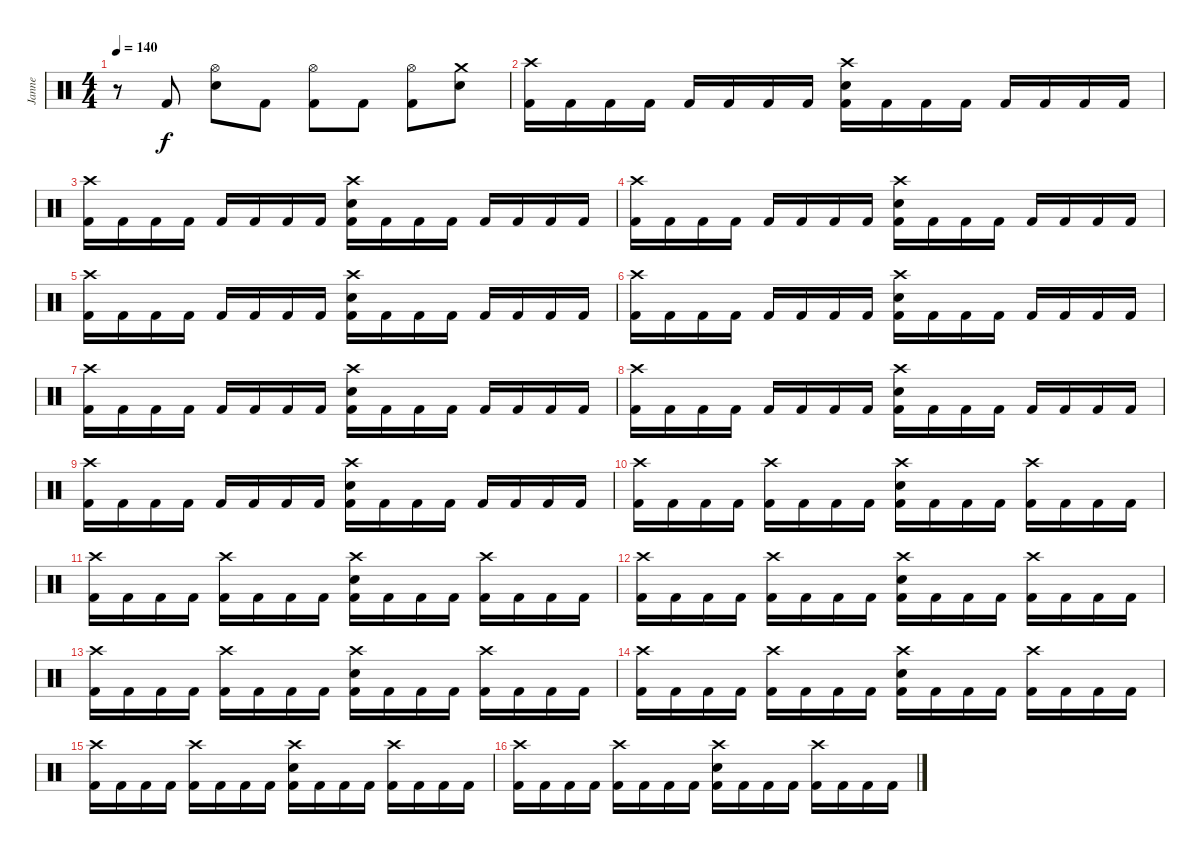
\track ("Janne" "Janne") {instrument percussion}
\staff {score}
\articulation defaults
\ts (4 4)
\tempo 140
\clef neutral
\ks c
r.8{dy f} "Kick (hit) 2".8 ("Hi-Hat (open)" "Electric Snare (hit)").8 "Kick (hit) 2".8 ("Hi-Hat (open)" "Kick (hit) 2").8 "Kick (hit) 2".8 ("Hi-Hat (open)" "Kick (hit) 2").8 ("Crash medium (hit)" "Electric Snare (hit)").8 |
("Crash high (hit)" "Kick (hit) 2").16 "Kick (hit) 2".16 "Kick (hit) 2".16 "Kick (hit) 2".16 "Kick (hit) 2".16 "Kick (hit) 2".16 "Kick (hit) 2".16 "Kick (hit) 2".16 ("Crash high (hit)" "Electric Snare (hit)" "Kick (hit) 2").16 "Kick (hit) 2".16 "Kick (hit) 2".16 "Kick (hit) 2".16 "Kick (hit) 2".16 "Kick (hit) 2".16 "Kick (hit) 2".16 "Kick (hit) 2".16 |
("Crash high (hit)" "Kick (hit) 2").16 "Kick (hit) 2".16 "Kick (hit) 2".16 "Kick (hit) 2".16 "Kick (hit) 2".16 "Kick (hit) 2".16 "Kick (hit) 2".16 "Kick (hit) 2".16 ("Crash high (hit)" "Electric Snare (hit)" "Kick (hit) 2").16 "Kick (hit) 2".16 "Kick (hit) 2".16 "Kick (hit) 2".16 "Kick (hit) 2".16 "Kick (hit) 2".16 "Kick (hit) 2".16 "Kick (hit) 2".16 |
("Crash high (hit)" "Kick (hit) 2").16 "Kick (hit) 2".16 "Kick (hit) 2".16 "Kick (hit) 2".16 "Kick (hit) 2".16 "Kick (hit) 2".16 "Kick (hit) 2".16 "Kick (hit) 2".16 ("Crash high (hit)" "Electric Snare (hit)" "Kick (hit) 2").16 "Kick (hit) 2".16 "Kick (hit) 2".16 "Kick (hit) 2".16 "Kick (hit) 2".16 "Kick (hit) 2".16 "Kick (hit) 2".16 "Kick (hit) 2".16 |
("Crash high (hit)" "Kick (hit) 2").16 "Kick (hit) 2".16 "Kick (hit) 2".16 "Kick (hit) 2".16 "Kick (hit) 2".16 "Kick (hit) 2".16 "Kick (hit) 2".16 "Kick (hit) 2".16 ("Crash high (hit)" "Electric Snare (hit)" "Kick (hit) 2").16 "Kick (hit) 2".16 "Kick (hit) 2".16 "Kick (hit) 2".16 "Kick (hit) 2".16 "Kick (hit) 2".16 "Kick (hit) 2".16 "Kick (hit) 2".16 |
("Crash high (hit)" "Kick (hit) 2").16 "Kick (hit) 2".16 "Kick (hit) 2".16 "Kick (hit) 2".16 "Kick (hit) 2".16 "Kick (hit) 2".16 "Kick (hit) 2".16 "Kick (hit) 2".16 ("Crash high (hit)" "Electric Snare (hit)" "Kick (hit) 2").16 "Kick (hit) 2".16 "Kick (hit) 2".16 "Kick (hit) 2".16 "Kick (hit) 2".16 "Kick (hit) 2".16 "Kick (hit) 2".16 "Kick (hit) 2".16 |
("Crash high (hit)" "Kick (hit) 2").16 "Kick (hit) 2".16 "Kick (hit) 2".16 "Kick (hit) 2".16 "Kick (hit) 2".16 "Kick (hit) 2".16 "Kick (hit) 2".16 "Kick (hit) 2".16 ("Crash high (hit)" "Electric Snare (hit)" "Kick (hit) 2").16 "Kick (hit) 2".16 "Kick (hit) 2".16 "Kick (hit) 2".16 "Kick (hit) 2".16 "Kick (hit) 2".16 "Kick (hit) 2".16 "Kick (hit) 2".16 |
("Crash high (hit)" "Kick (hit) 2").16 "Kick (hit) 2".16 "Kick (hit) 2".16 "Kick (hit) 2".16 "Kick (hit) 2".16 "Kick (hit) 2".16 "Kick (hit) 2".16 "Kick (hit) 2".16 ("Crash high (hit)" "Electric Snare (hit)" "Kick (hit) 2").16 "Kick (hit) 2".16 "Kick (hit) 2".16 "Kick (hit) 2".16 "Kick (hit) 2".16 "Kick (hit) 2".16 "Kick (hit) 2".16 "Kick (hit) 2".16 |
("Crash high (hit)" "Kick (hit) 2").16 "Kick (hit) 2".16 "Kick (hit) 2".16 "Kick (hit) 2".16 "Kick (hit) 2".16 "Kick (hit) 2".16 "Kick (hit) 2".16 "Kick (hit) 2".16 ("Crash high (hit)" "Electric Snare (hit)" "Kick (hit) 2").16 "Kick (hit) 2".16 "Kick (hit) 2".16 "Kick (hit) 2".16 "Kick (hit) 2".16 "Kick (hit) 2".16 "Kick (hit) 2".16 "Kick (hit) 2".16 |
("Crash high (hit)" "Kick (hit) 2").16 "Kick (hit) 2".16 "Kick (hit) 2".16 "Kick (hit) 2".16 ("Crash high (hit)" "Kick (hit) 2").16 "Kick (hit) 2".16 "Kick (hit) 2".16 "Kick (hit) 2".16 ("Crash high (hit)" "Electric Snare (hit)" "Kick (hit) 2").16 "Kick (hit) 2".16 "Kick (hit) 2".16 "Kick (hit) 2".16 ("Crash high (hit)" "Kick (hit) 2").16 "Kick (hit) 2".16 "Kick (hit) 2".16 "Kick (hit) 2".16 |
("Crash high (hit)" "Kick (hit) 2").16 "Kick (hit) 2".16 "Kick (hit) 2".16 "Kick (hit) 2".16 ("Crash high (hit)" "Kick (hit) 2").16 "Kick (hit) 2".16 "Kick (hit) 2".16 "Kick (hit) 2".16 ("Crash high (hit)" "Electric Snare (hit)" "Kick (hit) 2").16 "Kick (hit) 2".16 "Kick (hit) 2".16 "Kick (hit) 2".16 ("Crash high (hit)" "Kick (hit) 2").16 "Kick (hit) 2".16 "Kick (hit) 2".16 "Kick (hit) 2".16 |
("Crash high (hit)" "Kick (hit) 2").16 "Kick (hit) 2".16 "Kick (hit) 2".16 "Kick (hit) 2".16 ("Crash high (hit)" "Kick (hit) 2").16 "Kick (hit) 2".16 "Kick (hit) 2".16 "Kick (hit) 2".16 ("Crash high (hit)" "Electric Snare (hit)" "Kick (hit) 2").16 "Kick (hit) 2".16 "Kick (hit) 2".16 "Kick (hit) 2".16 ("Crash high (hit)" "Kick (hit) 2").16 "Kick (hit) 2".16 "Kick (hit) 2".16 "Kick (hit) 2".16 |
("Crash high (hit)" "Kick (hit) 2").16 "Kick (hit) 2".16 "Kick (hit) 2".16 "Kick (hit) 2".16 ("Crash high (hit)" "Kick (hit) 2").16 "Kick (hit) 2".16 "Kick (hit) 2".16 "Kick (hit) 2".16 ("Crash high (hit)" "Electric Snare (hit)" "Kick (hit) 2").16 "Kick (hit) 2".16 "Kick (hit) 2".16 "Kick (hit) 2".16 ("Crash high (hit)" "Kick (hit) 2").16 "Kick (hit) 2".16 "Kick (hit) 2".16 "Kick (hit) 2".16 |
("Crash high (hit)" "Kick (hit) 2").16 "Kick (hit) 2".16 "Kick (hit) 2".16 "Kick (hit) 2".16 ("Crash high (hit)" "Kick (hit) 2").16 "Kick (hit) 2".16 "Kick (hit) 2".16 "Kick (hit) 2".16 ("Crash high (hit)" "Electric Snare (hit)" "Kick (hit) 2").16 "Kick (hit) 2".16 "Kick (hit) 2".16 "Kick (hit) 2".16 ("Crash high (hit)" "Kick (hit) 2").16 "Kick (hit) 2".16 "Kick (hit) 2".16 "Kick (hit) 2".16 |
("Crash high (hit)" "Kick (hit) 2").16 "Kick (hit) 2".16 "Kick (hit) 2".16 "Kick (hit) 2".16 ("Crash high (hit)" "Kick (hit) 2").16 "Kick (hit) 2".16 "Kick (hit) 2".16 "Kick (hit) 2".16 ("Crash high (hit)" "Electric Snare (hit)" "Kick (hit) 2").16 "Kick (hit) 2".16 "Kick (hit) 2".16 "Kick (hit) 2".16 ("Crash high (hit)" "Kick (hit) 2").16 "Kick (hit) 2".16 "Kick (hit) 2".16 "Kick (hit) 2".16 |
("Crash high (hit)" "Kick (hit) 2").16 "Kick (hit) 2".16 "Kick (hit) 2".16 "Kick (hit) 2".16 ("Crash high (hit)" "Kick (hit) 2").16 "Kick (hit) 2".16 "Kick (hit) 2".16 "Kick (hit) 2".16 ("Crash high (hit)" "Electric Snare (hit)" "Kick (hit) 2").16 "Kick (hit) 2".16 "Kick (hit) 2".16 "Kick (hit) 2".16 ("Crash high (hit)" "Kick (hit) 2").16 "Kick (hit) 2".16 "Kick (hit) 2".16 "Kick (hit) 2".16
